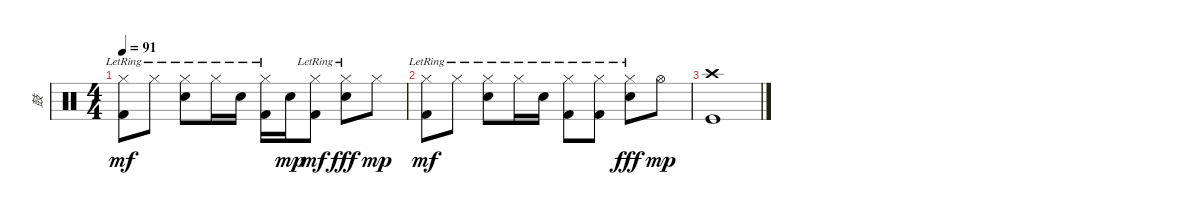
\track ("鼓" "鼓") {instrument percussion}
\staff {score}
\articulation defaults
\ts (4 4)
\tempo 91
\clef neutral
\ks c
("Hi-Hat (closed)"{lr} "Kick (hit) 2"{lr}).8{dy mf} "Hi-Hat (closed)"{lr}.8 ("Hi-Hat (closed)"{lr} "Electric Snare (hit)"{lr}).8 "Hi-Hat (closed)"{lr}.16 "Electric Snare (hit)"{lr}.16 ("Hi-Hat (closed)"{lr} "Kick (hit) 2").16 "Electric Snare (hit)".16{dy mp} ("Hi-Hat (closed)"{lr} "Kick (hit) 2"{lr}).8{dy mf} ("Hi-Hat (closed)"{lr} "Electric Snare (hit)"{lr}).8{dy fff} "Hi-Hat (closed)".8{dy mp} |
("Hi-Hat (closed)"{lr} "Kick (hit) 2"{lr}).8{dy mf} "Hi-Hat (closed)"{lr}.8 ("Hi-Hat (closed)"{lr} "Electric Snare (hit)"{lr}).8 "Hi-Hat (closed)"{lr}.16 "Electric Snare (hit)"{lr}.16 ("Hi-Hat (closed)"{lr} "Kick (hit) 2").8 ("Hi-Hat (closed)"{lr} "Kick (hit) 2"{lr}).8 ("Hi-Hat (closed)"{lr} "Electric Snare (hit)"{lr}).8{dy fff} "Hi-Hat (open)".8{dy mp} |
("Crash high (hit)" "Kick (hit)").1
